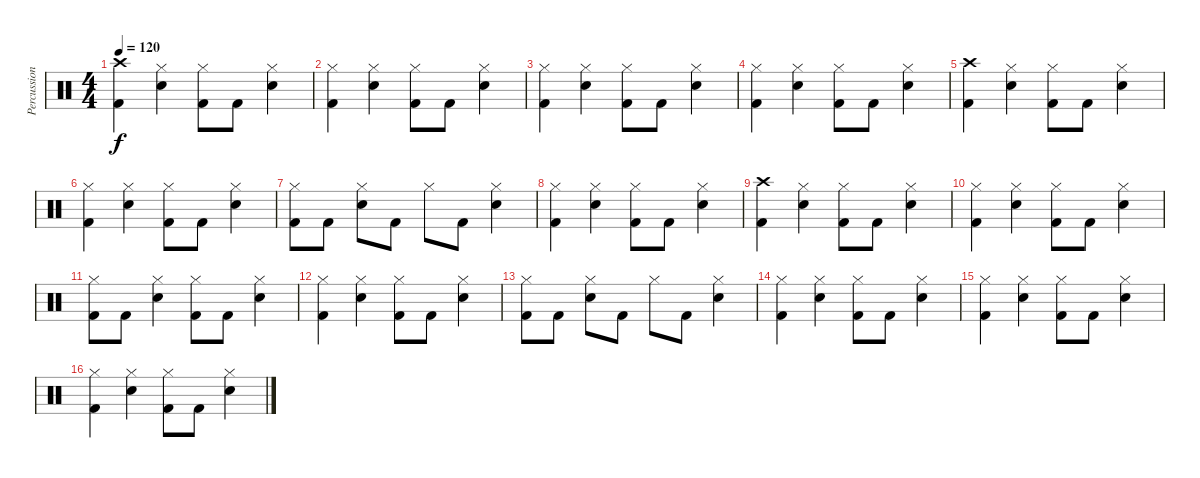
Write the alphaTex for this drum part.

\track ("Percussion" "Percussion") {instrument percussion}
\staff {score}
\articulation defaults
\ts (4 4)
\tempo 120
\clef neutral
\ks c
("Crash high (hit)" "Kick (hit) 2").4{dy f} ("Hi-Hat (closed)" "Snare (hit) 2").4 ("Hi-Hat (closed)" "Kick (hit) 2").8 "Kick (hit) 2".8 ("Hi-Hat (closed)" "Snare (hit) 2").4 |
("Hi-Hat (closed)" "Kick (hit) 2").4 ("Hi-Hat (closed)" "Snare (hit) 2").4 ("Hi-Hat (closed)" "Kick (hit) 2").8 "Kick (hit) 2".8 ("Hi-Hat (closed)" "Snare (hit) 2").4 |
("Hi-Hat (closed)" "Kick (hit) 2").4 ("Hi-Hat (closed)" "Snare (hit) 2").4 ("Hi-Hat (closed)" "Kick (hit) 2").8 "Kick (hit) 2".8 ("Hi-Hat (closed)" "Snare (hit) 2").4 |
("Hi-Hat (closed)" "Kick (hit) 2").4 ("Hi-Hat (closed)" "Snare (hit) 2").4 ("Hi-Hat (closed)" "Kick (hit) 2").8 "Kick (hit) 2".8 ("Hi-Hat (closed)" "Snare (hit) 2").4 |
("Crash high (hit)" "Kick (hit) 2").4 ("Hi-Hat (closed)" "Snare (hit) 2").4 ("Hi-Hat (closed)" "Kick (hit) 2").8 "Kick (hit) 2".8 ("Hi-Hat (closed)" "Snare (hit) 2").4 |
("Hi-Hat (closed)" "Kick (hit) 2").4 ("Hi-Hat (closed)" "Snare (hit) 2").4 ("Hi-Hat (closed)" "Kick (hit) 2").8 "Kick (hit) 2".8 ("Hi-Hat (closed)" "Snare (hit) 2").4 |
("Hi-Hat (closed)" "Kick (hit) 2").8 "Kick (hit) 2".8 ("Hi-Hat (closed)" "Snare (hit) 2").8 "Kick (hit) 2".8 "Hi-Hat (closed)".8 "Kick (hit) 2".8 ("Hi-Hat (closed)" "Snare (hit) 2").4 |
("Hi-Hat (closed)" "Kick (hit) 2").4 ("Hi-Hat (closed)" "Snare (hit) 2").4 ("Hi-Hat (closed)" "Kick (hit) 2").8 "Kick (hit) 2".8 ("Hi-Hat (closed)" "Snare (hit) 2").4 |
("Crash high (hit)" "Kick (hit) 2").4 ("Hi-Hat (closed)" "Snare (hit) 2").4 ("Hi-Hat (closed)" "Kick (hit) 2").8 "Kick (hit) 2".8 ("Hi-Hat (closed)" "Snare (hit) 2").4 |
("Hi-Hat (closed)" "Kick (hit) 2").4 ("Hi-Hat (closed)" "Snare (hit) 2").4 ("Hi-Hat (closed)" "Kick (hit) 2").8 "Kick (hit) 2".8 ("Hi-Hat (closed)" "Snare (hit) 2").4 |
("Hi-Hat (closed)" "Kick (hit) 2").8 "Kick (hit) 2".8 ("Hi-Hat (closed)" "Snare (hit) 2").4 ("Hi-Hat (closed)" "Kick (hit) 2").8 "Kick (hit) 2".8 ("Hi-Hat (closed)" "Snare (hit) 2").4 |
("Hi-Hat (closed)" "Kick (hit) 2").4 ("Hi-Hat (closed)" "Snare (hit) 2").4 ("Hi-Hat (closed)" "Kick (hit) 2").8 "Kick (hit) 2".8 ("Hi-Hat (closed)" "Snare (hit) 2").4 |
("Hi-Hat (closed)" "Kick (hit) 2").8 "Kick (hit) 2".8 ("Hi-Hat (closed)" "Snare (hit) 2").8 "Kick (hit) 2".8 "Hi-Hat (closed)".8 "Kick (hit) 2".8 ("Hi-Hat (closed)" "Snare (hit) 2").4 |
("Hi-Hat (closed)" "Kick (hit) 2").4 ("Hi-Hat (closed)" "Snare (hit) 2").4 ("Hi-Hat (closed)" "Kick (hit) 2").8 "Kick (hit) 2".8 ("Hi-Hat (closed)" "Snare (hit) 2").4 |
("Hi-Hat (closed)" "Kick (hit) 2").4 ("Hi-Hat (closed)" "Snare (hit) 2").4 ("Hi-Hat (closed)" "Kick (hit) 2").8 "Kick (hit) 2".8 ("Hi-Hat (closed)" "Snare (hit) 2").4 |
("Hi-Hat (closed)" "Kick (hit) 2").4 ("Hi-Hat (closed)" "Snare (hit) 2").4 ("Hi-Hat (closed)" "Kick (hit) 2").8 "Kick (hit) 2".8 ("Hi-Hat (closed)" "Snare (hit) 2").4
